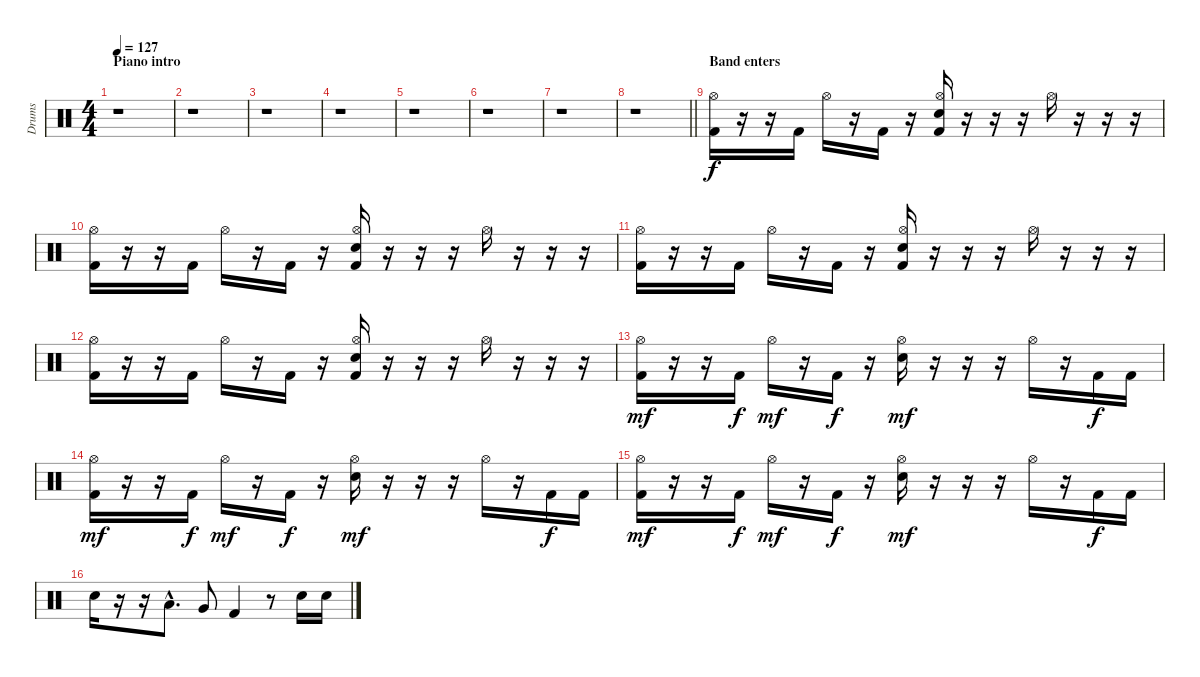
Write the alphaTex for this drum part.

\track ("Drums" "Drums") {instrument percussion}
\staff {score}
\articulation defaults
\ts (4 4)
\section ("" "Piano intro")
\tempo 127
\clef neutral
\ks c
r.1{dy f} |
r.1 |
r.1 |
r.1 |
r.1 |
r.1 |
r.1 |
\barLineRight lightlight
r.1 |
\section ("" "Band enters")
("Kick (hit) 2" "Hi-Hat (open)").16 r.16 r.16 "Kick (hit) 2".16 "Hi-Hat (open)".16 r.16 "Kick (hit) 2".16 r.16 ("Kick (hit) 2" "Electric Snare (hit)" "Hi-Hat (open)").16 r.16 r.16 r.16 "Hi-Hat (open)".16 r.16 r.16 r.16 |
("Kick (hit) 2" "Hi-Hat (open)").16 r.16 r.16 "Kick (hit) 2".16 "Hi-Hat (open)".16 r.16 "Kick (hit) 2".16 r.16 ("Kick (hit) 2" "Electric Snare (hit)" "Hi-Hat (open)").16 r.16 r.16 r.16 "Hi-Hat (open)".16 r.16 r.16 r.16 |
("Kick (hit) 2" "Hi-Hat (open)").16 r.16 r.16 "Kick (hit) 2".16 "Hi-Hat (open)".16 r.16 "Kick (hit) 2".16 r.16 ("Kick (hit) 2" "Electric Snare (hit)" "Hi-Hat (open)").16 r.16 r.16 r.16 "Hi-Hat (open)".16 r.16 r.16 r.16 |
("Kick (hit) 2" "Hi-Hat (open)").16 r.16 r.16 "Kick (hit) 2".16 "Hi-Hat (open)".16 r.16 "Kick (hit) 2".16 r.16 ("Kick (hit) 2" "Electric Snare (hit)" "Hi-Hat (open)").16 r.16 r.16 r.16 "Hi-Hat (open)".16 r.16 r.16 r.16 |
("Kick (hit) 2" "Hi-Hat (open)").16{dy mf} r.16 r.16 "Kick (hit) 2".16{dy f} "Hi-Hat (open)".16{dy mf} r.16 "Kick (hit) 2".16{dy f} r.16 ("Electric Snare (hit)" "Hi-Hat (open)").16{dy mf} r.16 r.16 r.16 "Hi-Hat (open)".16 r.16 "Kick (hit) 2".16{dy f} "Kick (hit) 2".16 |
("Kick (hit) 2" "Hi-Hat (open)").16{dy mf} r.16 r.16 "Kick (hit) 2".16{dy f} "Hi-Hat (open)".16{dy mf} r.16 "Kick (hit) 2".16{dy f} r.16 ("Electric Snare (hit)" "Hi-Hat (open)").16{dy mf} r.16 r.16 r.16 "Hi-Hat (open)".16 r.16 "Kick (hit) 2".16{dy f} "Kick (hit) 2".16 |
("Kick (hit) 2" "Hi-Hat (open)").16{dy mf} r.16 r.16 "Kick (hit) 2".16{dy f} "Hi-Hat (open)".16{dy mf} r.16 "Kick (hit) 2".16{dy f} r.16 ("Electric Snare (hit)" "Hi-Hat (open)").16{dy mf} r.16 r.16 r.16 "Hi-Hat (open)".16 r.16 "Kick (hit) 2".16{dy f} "Kick (hit) 2".16 |
"Electric Snare (hit)".16 r.16 r.16 "Low Tom (hit)"{hac}.8{d} "Very Low Tom (hit)".8 "Kick (hit) 2".4 r.8 "Electric Snare (hit)".16 "Electric Snare (hit)".16
